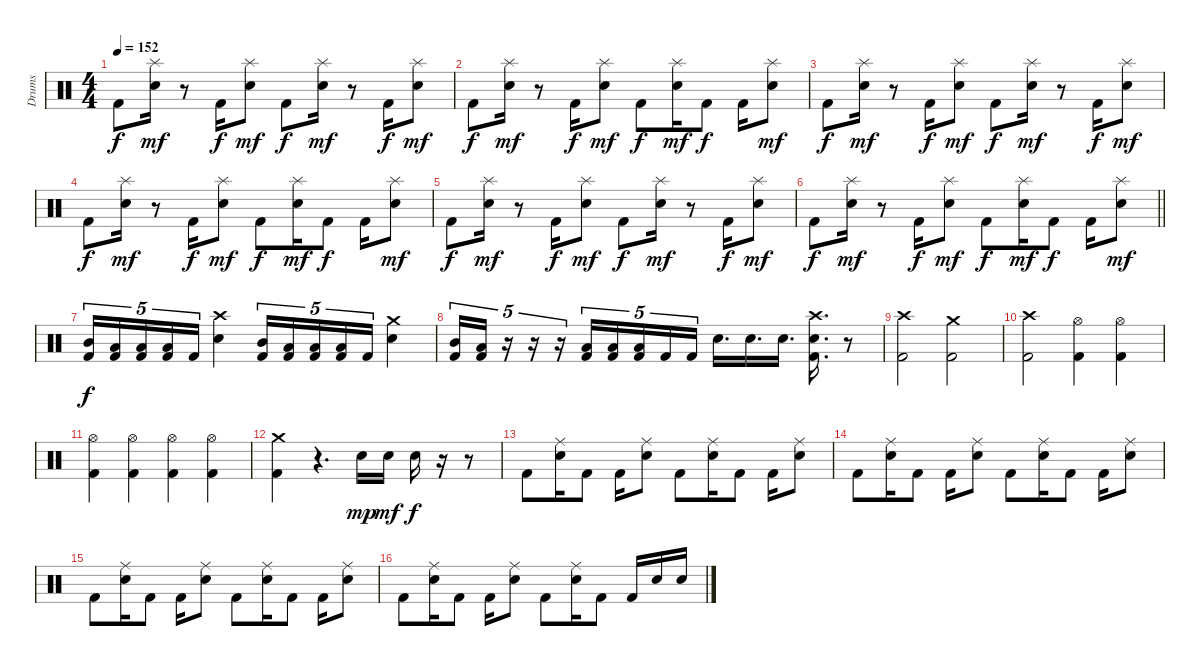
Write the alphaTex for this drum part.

\track ("Drums" "Drums") {instrument percussion}
\staff {score}
\articulation defaults
\ts (4 4)
\tempo 152
\clef neutral
\ks c "Kick (hit) 2".8{dy f}
("Splash (hit)" "Snare (hit) 2").16{dy mf} r.8 "Kick (hit) 2".16{dy f} ("Splash (hit)" "Snare (hit) 2").8{dy mf} "Kick (hit) 2".8{dy f} ("Splash (hit)" "Snare (hit) 2").16{dy mf} r.8 "Kick (hit) 2".16{dy f} ("Splash (hit)" "Snare (hit) 2").8{dy mf} |
"Kick (hit) 2".8{dy f} ("Splash (hit)" "Snare (hit) 2").16{dy mf} r.8 "Kick (hit) 2".16{dy f} ("Splash (hit)" "Snare (hit) 2").8{dy mf} "Kick (hit) 2".8{dy f} ("Splash (hit)" "Snare (hit) 2").16{dy mf} "Kick (hit) 2".8{dy f} "Kick (hit) 2".16 ("Splash (hit)" "Snare (hit) 2").8{dy mf} |
"Kick (hit) 2".8{dy f} ("Splash (hit)" "Snare (hit) 2").16{dy mf} r.8 "Kick (hit) 2".16{dy f} ("Splash (hit)" "Snare (hit) 2").8{dy mf} "Kick (hit) 2".8{dy f} ("Splash (hit)" "Snare (hit) 2").16{dy mf} r.8 "Kick (hit) 2".16{dy f} ("Splash (hit)" "Snare (hit) 2").8{dy mf} |
"Kick (hit) 2".8{dy f} ("Splash (hit)" "Snare (hit) 2").16{dy mf} r.8 "Kick (hit) 2".16{dy f} ("Splash (hit)" "Snare (hit) 2").8{dy mf} "Kick (hit) 2".8{dy f} ("Splash (hit)" "Snare (hit) 2").16{dy mf} "Kick (hit) 2".8{dy f} "Kick (hit) 2".16 ("Splash (hit)" "Snare (hit) 2").8{dy mf} |
"Kick (hit) 2".8{dy f} ("Splash (hit)" "Snare (hit) 2").16{dy mf} r.8 "Kick (hit) 2".16{dy f} ("Splash (hit)" "Snare (hit) 2").8{dy mf} "Kick (hit) 2".8{dy f} ("Splash (hit)" "Snare (hit) 2").16{dy mf} r.8 "Kick (hit) 2".16{dy f} ("Splash (hit)" "Snare (hit) 2").8{dy mf} |
\barLineRight lightlight "Kick (hit) 2".8{dy f}
("Splash (hit)" "Snare (hit) 2").16{dy mf} r.8 "Kick (hit) 2".16{dy f} ("Splash (hit)" "Snare (hit) 2").8{dy mf} "Kick (hit) 2".8{dy f} ("Splash (hit)" "Snare (hit) 2").16{dy mf} "Kick (hit) 2".8{dy f} "Kick (hit) 2".16 ("Splash (hit)" "Snare (hit) 2").8{dy mf} |
\section ("" "")
("Mid Tom (hit)" "Kick (hit) 2").16{tu (5 4) dy f} ("Low Tom (hit)" "Kick (hit) 2").16{tu (5 4)} ("Low Tom (hit)" "Kick (hit) 2").16{tu (5 4)} ("Low Tom (hit)" "Kick (hit) 2").16{tu (5 4)} "Kick (hit) 2".16{tu (5 4)} ("Crash high (hit)" "Snare (hit) 2").4 ("Mid Tom (hit)" "Kick (hit) 2").16{tu (5 4)} ("Low Tom (hit)" "Kick (hit) 2").16{tu (5 4)} ("Low Tom (hit)" "Kick (hit) 2").16{tu (5 4)} ("Low Tom (hit)" "Kick (hit) 2").16{tu (5 4)} "Kick (hit) 2".16{tu (5 4)} ("Crash medium (hit)" "Snare (hit) 2").4 |
("Mid Tom (hit)" "Kick (hit) 2").16{tu (5 4)} ("Low Tom (hit)" "Kick (hit) 2").16{tu (5 4)} r.16{tu (5 4)} r.16{tu (5 4)} r.16{tu (5 4)} ("Low Tom (hit)" "Kick (hit) 2").16{tu (5 4)} ("Low Tom (hit)" "Kick (hit) 2").16{tu (5 4)} ("Low Tom (hit)" "Kick (hit) 2").16{tu (5 4)} "Kick (hit) 2".16{tu (5 4)} "Kick (hit) 2".16{tu (5 4)} "Snare (hit) 2".16{d} "Snare (hit) 2".16{d} "Snare (hit) 2".16{d} ("Crash high (hit)" "Snare (hit) 2" "Kick (hit) 2").16{d} r.8 |
("Crash high (hit)" "Kick (hit) 2").2 ("Crash medium (hit)" "Kick (hit) 2").2 |
("Crash high (hit)" "Kick (hit) 2").2 ("Hi-Hat (open)" "Kick (hit) 2").4 ("Hi-Hat (open)" "Kick (hit) 2").4 |
("Hi-Hat (open)" "Kick (hit) 2").4 ("Hi-Hat (open)" "Kick (hit) 2").4 ("Hi-Hat (open)" "Kick (hit) 2").4 ("Hi-Hat (open)" "Kick (hit) 2").4 |
("Crash medium (hit)" "Kick (hit) 2").4 r.4{d} "Snare (hit) 2".16{dy mp} "Snare (hit) 2".16{dy mf} "Snare (hit) 2".16{dy f} r.16 r.8 |
"Kick (hit) 2".8 ("Ride (middle)" "Snare (hit) 2").16 "Kick (hit) 2".8 "Kick (hit) 2".16 ("Ride (middle)" "Snare (hit) 2").8 "Kick (hit) 2".8 ("Ride (middle)" "Snare (hit) 2").16 "Kick (hit) 2".8 "Kick (hit) 2".16 ("Ride (middle)" "Snare (hit) 2").8 |
"Kick (hit) 2".8 ("Ride (middle)" "Snare (hit) 2").16 "Kick (hit) 2".8 "Kick (hit) 2".16 ("Ride (middle)" "Snare (hit) 2").8 "Kick (hit) 2".8 ("Ride (middle)" "Snare (hit) 2").16 "Kick (hit) 2".8 "Kick (hit) 2".16 ("Ride (middle)" "Snare (hit) 2").8 |
"Kick (hit) 2".8 ("Ride (middle)" "Snare (hit) 2").16 "Kick (hit) 2".8 "Kick (hit) 2".16 ("Ride (middle)" "Snare (hit) 2").8 "Kick (hit) 2".8 ("Ride (middle)" "Snare (hit) 2").16 "Kick (hit) 2".8 "Kick (hit) 2".16 ("Ride (middle)" "Snare (hit) 2").8 |
"Kick (hit) 2".8 ("Ride (middle)" "Snare (hit) 2").16 "Kick (hit) 2".8 "Kick (hit) 2".16 ("Ride (middle)" "Snare (hit) 2").8 "Kick (hit) 2".8 ("Ride (middle)" "Snare (hit) 2").16 "Kick (hit) 2".8 "Kick (hit) 2".16 "Snare (hit) 2".16 "Snare (hit) 2".16
